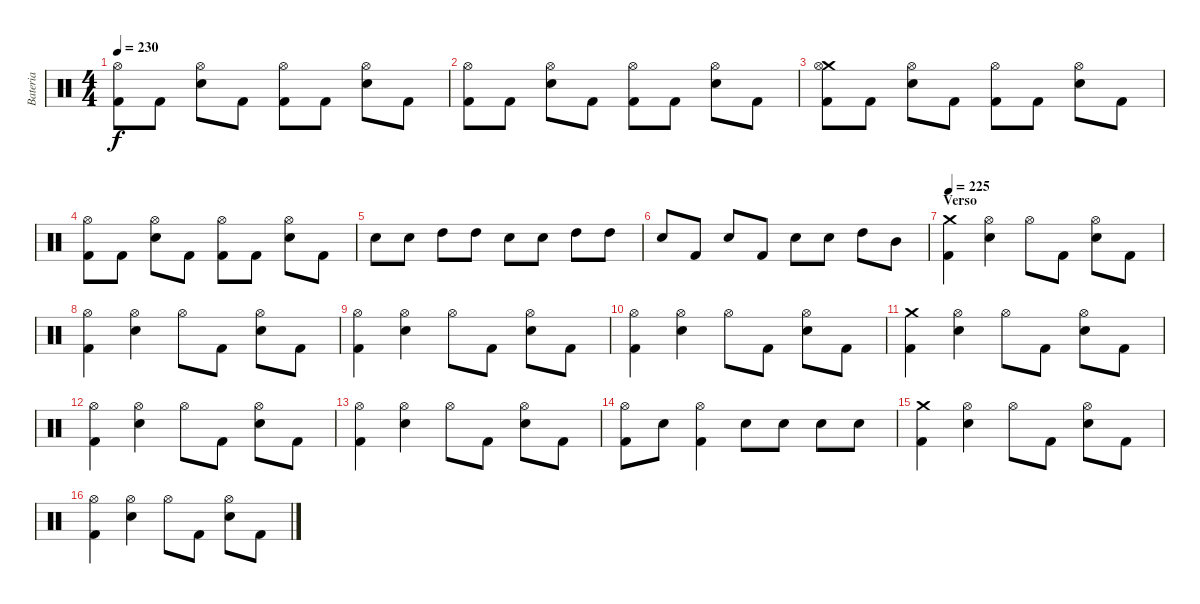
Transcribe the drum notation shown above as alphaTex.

\track ("Bateria" "Bateria") {instrument percussion}
\staff {score}
\articulation defaults
\ts (4 4)
\tempo 230
\clef neutral
\ks c
("Hi-Hat (open)" "Kick (hit) 2").8{dy f} "Kick (hit) 2".8 ("Hi-Hat (open)" "Snare (hit) 2").8 "Kick (hit) 2".8 ("Hi-Hat (open)" "Kick (hit) 2").8 "Kick (hit) 2".8 ("Hi-Hat (open)" "Snare (hit) 2").8 "Kick (hit) 2".8 |
("Hi-Hat (open)" "Kick (hit) 2").8 "Kick (hit) 2".8 ("Hi-Hat (open)" "Snare (hit) 2").8 "Kick (hit) 2".8 ("Hi-Hat (open)" "Kick (hit) 2").8 "Kick (hit) 2".8 ("Hi-Hat (open)" "Snare (hit) 2").8 "Kick (hit) 2".8 |
("Crash medium (hit)" "Hi-Hat (open)" "Kick (hit) 2").8 "Kick (hit) 2".8 ("Hi-Hat (open)" "Snare (hit) 2").8 "Kick (hit) 2".8 ("Hi-Hat (open)" "Kick (hit) 2").8 "Kick (hit) 2".8 ("Hi-Hat (open)" "Snare (hit) 2").8 "Kick (hit) 2".8 |
("Hi-Hat (open)" "Kick (hit) 2").8 "Kick (hit) 2".8 ("Hi-Hat (open)" "Snare (hit) 2").8 "Kick (hit) 2".8 ("Hi-Hat (open)" "Kick (hit) 2").8 "Kick (hit) 2".8 ("Hi-Hat (open)" "Snare (hit) 2").8 "Kick (hit) 2".8 |
"Snare (hit) 2".8 "Snare (hit) 2".8 "High Tom (hit)".8 "High Tom (hit)".8 "Snare (hit) 2".8 "Snare (hit) 2".8 "High Tom (hit)".8 "High Tom (hit)".8 |
"Snare (hit) 2".8 "Kick (hit) 2".8 "Snare (hit) 2".8 "Kick (hit) 2".8 "Snare (hit) 2".8 "Snare (hit) 2".8 "High Tom (hit)".8 "Mid Tom (hit)".8 |
\section ("" "Verso")
\tempo 225
("Crash medium (hit)" "Kick (hit) 2").4 ("Snare (hit) 2" "Hi-Hat (open)").4 "Hi-Hat (open)".8 "Kick (hit) 2".8 ("Hi-Hat (open)" "Snare (hit) 2").8 "Kick (hit) 2".8 |
("Hi-Hat (open)" "Kick (hit) 2").4 ("Snare (hit) 2" "Hi-Hat (open)").4 "Hi-Hat (open)".8 "Kick (hit) 2".8 ("Hi-Hat (open)" "Snare (hit) 2").8 "Kick (hit) 2".8 |
("Hi-Hat (open)" "Kick (hit) 2").4 ("Snare (hit) 2" "Hi-Hat (open)").4 "Hi-Hat (open)".8 "Kick (hit) 2".8 ("Hi-Hat (open)" "Snare (hit) 2").8 "Kick (hit) 2".8 |
("Hi-Hat (open)" "Kick (hit) 2").4 ("Snare (hit) 2" "Hi-Hat (open)").4 "Hi-Hat (open)".8 "Kick (hit) 2".8 ("Hi-Hat (open)" "Snare (hit) 2").8 "Kick (hit) 2".8 |
("Crash medium (hit)" "Kick (hit) 2").4 ("Snare (hit) 2" "Hi-Hat (open)").4 "Hi-Hat (open)".8 "Kick (hit) 2".8 ("Hi-Hat (open)" "Snare (hit) 2").8 "Kick (hit) 2".8 |
("Hi-Hat (open)" "Kick (hit) 2").4 ("Snare (hit) 2" "Hi-Hat (open)").4 "Hi-Hat (open)".8 "Kick (hit) 2".8 ("Hi-Hat (open)" "Snare (hit) 2").8 "Kick (hit) 2".8 |
("Hi-Hat (open)" "Kick (hit) 2").4 ("Snare (hit) 2" "Hi-Hat (open)").4 "Hi-Hat (open)".8 "Kick (hit) 2".8 ("Hi-Hat (open)" "Snare (hit) 2").8 "Kick (hit) 2".8 |
("Hi-Hat (open)" "Kick (hit) 2").8 "Snare (hit) 2".8 ("Kick (hit) 2" "Hi-Hat (open)").4 "Snare (hit) 2".8 "Snare (hit) 2".8 "Snare (hit) 2".8 "Snare (hit) 2".8 |
("Crash medium (hit)" "Kick (hit) 2").4 ("Snare (hit) 2" "Hi-Hat (open)").4 "Hi-Hat (open)".8 "Kick (hit) 2".8 ("Hi-Hat (open)" "Snare (hit) 2").8 "Kick (hit) 2".8 |
("Hi-Hat (open)" "Kick (hit) 2").4 ("Snare (hit) 2" "Hi-Hat (open)").4 "Hi-Hat (open)".8 "Kick (hit) 2".8 ("Hi-Hat (open)" "Snare (hit) 2").8 "Kick (hit) 2".8
